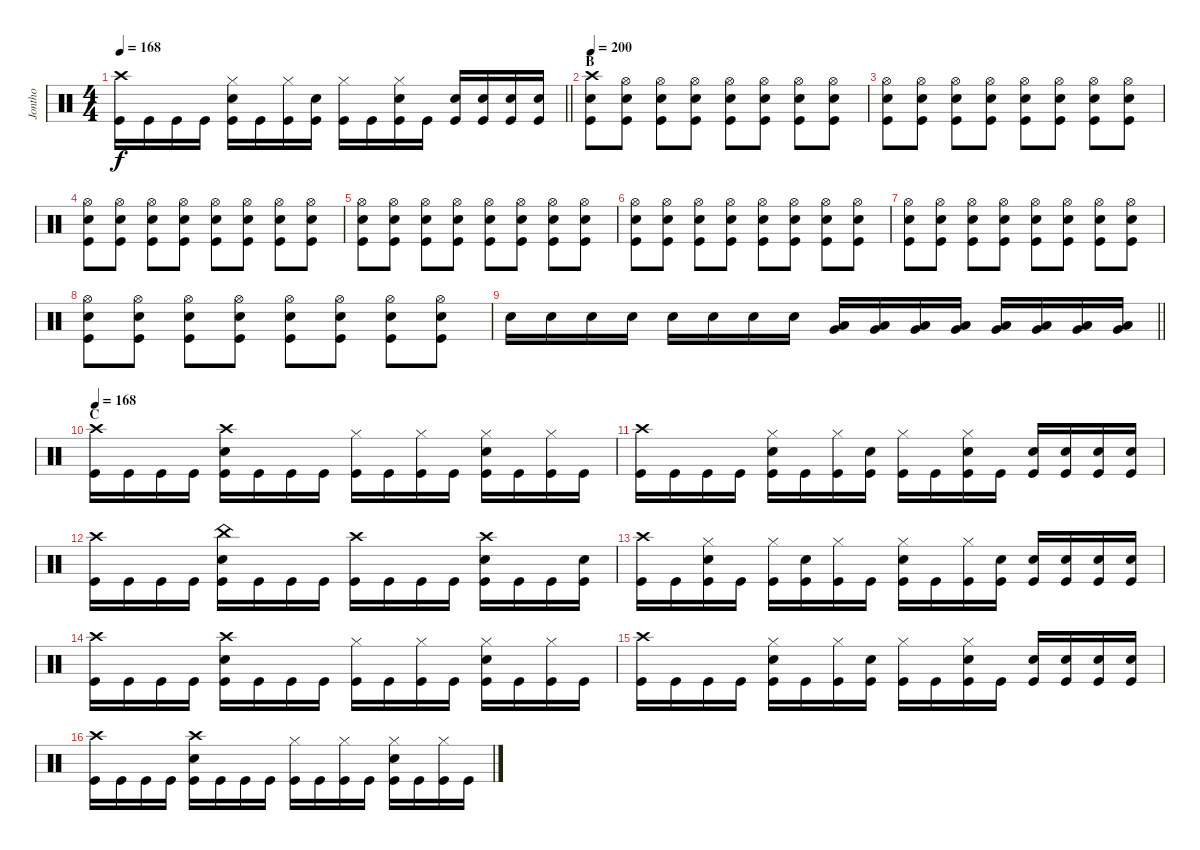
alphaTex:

\track ("Jontho" "Jontho") {instrument percussion}
\staff {score}
\articulation defaults
\ts (4 4)
\tempo 168
\clef neutral
\barLineRight lightlight
\ks c
("Crash high (hit)" "Kick (hit)").16{dy f} "Kick (hit)".16 "Kick (hit)".16 "Kick (hit)".16 ("Hi-Hat (closed)" "Snare (hit) 2" "Kick (hit)").16 "Kick (hit)".16 ("Hi-Hat (closed)" "Kick (hit)").16 ("Snare (hit) 2" "Kick (hit)").16 ("Hi-Hat (closed)" "Kick (hit)").16 "Kick (hit)".16 ("Hi-Hat (closed)" "Snare (hit) 2" "Kick (hit)").16 "Kick (hit)".16 ("Snare (hit) 2" "Kick (hit)").16 ("Snare (hit) 2" "Kick (hit)").16 ("Snare (hit) 2" "Kick (hit)").16 ("Snare (hit) 2" "Kick (hit)").16 |
\section ("" "B")
\tempo 200
("Crash high (hit)" "Snare (hit) 2" "Kick (hit)").8 ("Hi-Hat (open)" "Snare (hit) 2" "Kick (hit)").8 ("Hi-Hat (open)" "Snare (hit) 2" "Kick (hit)").8 ("Hi-Hat (open)" "Snare (hit) 2" "Kick (hit)").8 ("Hi-Hat (open)" "Snare (hit) 2" "Kick (hit)").8 ("Hi-Hat (open)" "Snare (hit) 2" "Kick (hit)").8 ("Hi-Hat (open)" "Snare (hit) 2" "Kick (hit)").8 ("Hi-Hat (open)" "Snare (hit) 2" "Kick (hit)").8 |
("Hi-Hat (open)" "Snare (hit) 2" "Kick (hit)").8 ("Hi-Hat (open)" "Snare (hit) 2" "Kick (hit)").8 ("Hi-Hat (open)" "Snare (hit) 2" "Kick (hit)").8 ("Hi-Hat (open)" "Snare (hit) 2" "Kick (hit)").8 ("Hi-Hat (open)" "Snare (hit) 2" "Kick (hit)").8 ("Hi-Hat (open)" "Snare (hit) 2" "Kick (hit)").8 ("Hi-Hat (open)" "Snare (hit) 2" "Kick (hit)").8 ("Hi-Hat (open)" "Snare (hit) 2" "Kick (hit)").8 |
("Hi-Hat (open)" "Snare (hit) 2" "Kick (hit)").8 ("Hi-Hat (open)" "Snare (hit) 2" "Kick (hit)").8 ("Hi-Hat (open)" "Snare (hit) 2" "Kick (hit)").8 ("Hi-Hat (open)" "Snare (hit) 2" "Kick (hit)").8 ("Hi-Hat (open)" "Snare (hit) 2" "Kick (hit)").8 ("Hi-Hat (open)" "Snare (hit) 2" "Kick (hit)").8 ("Hi-Hat (open)" "Snare (hit) 2" "Kick (hit)").8 ("Hi-Hat (open)" "Snare (hit) 2" "Kick (hit)").8 |
("Hi-Hat (open)" "Snare (hit) 2" "Kick (hit)").8 ("Hi-Hat (open)" "Snare (hit) 2" "Kick (hit)").8 ("Hi-Hat (open)" "Snare (hit) 2" "Kick (hit)").8 ("Hi-Hat (open)" "Snare (hit) 2" "Kick (hit)").8 ("Hi-Hat (open)" "Snare (hit) 2" "Kick (hit)").8 ("Hi-Hat (open)" "Snare (hit) 2" "Kick (hit)").8 ("Hi-Hat (open)" "Snare (hit) 2" "Kick (hit)").8 ("Hi-Hat (open)" "Snare (hit) 2" "Kick (hit)").8 |
("Hi-Hat (open)" "Snare (hit) 2" "Kick (hit)").8 ("Hi-Hat (open)" "Snare (hit) 2" "Kick (hit)").8 ("Hi-Hat (open)" "Snare (hit) 2" "Kick (hit)").8 ("Hi-Hat (open)" "Snare (hit) 2" "Kick (hit)").8 ("Hi-Hat (open)" "Snare (hit) 2" "Kick (hit)").8 ("Hi-Hat (open)" "Snare (hit) 2" "Kick (hit)").8 ("Hi-Hat (open)" "Snare (hit) 2" "Kick (hit)").8 ("Hi-Hat (open)" "Snare (hit) 2" "Kick (hit)").8 |
("Hi-Hat (open)" "Snare (hit) 2" "Kick (hit)").8 ("Hi-Hat (open)" "Snare (hit) 2" "Kick (hit)").8 ("Hi-Hat (open)" "Snare (hit) 2" "Kick (hit)").8 ("Hi-Hat (open)" "Snare (hit) 2" "Kick (hit)").8 ("Hi-Hat (open)" "Snare (hit) 2" "Kick (hit)").8 ("Hi-Hat (open)" "Snare (hit) 2" "Kick (hit)").8 ("Hi-Hat (open)" "Snare (hit) 2" "Kick (hit)").8 ("Hi-Hat (open)" "Snare (hit) 2" "Kick (hit)").8 |
("Hi-Hat (open)" "Snare (hit) 2" "Kick (hit)").8 ("Hi-Hat (open)" "Snare (hit) 2" "Kick (hit)").8 ("Hi-Hat (open)" "Snare (hit) 2" "Kick (hit)").8 ("Hi-Hat (open)" "Snare (hit) 2" "Kick (hit)").8 ("Hi-Hat (open)" "Snare (hit) 2" "Kick (hit)").8 ("Hi-Hat (open)" "Snare (hit) 2" "Kick (hit)").8 ("Hi-Hat (open)" "Snare (hit) 2" "Kick (hit)").8 ("Hi-Hat (open)" "Snare (hit) 2" "Kick (hit)").8 |
\barLineRight lightlight "Snare (hit) 2".16 "Snare (hit) 2".16 "Snare (hit) 2".16 "Snare (hit) 2".16 "Snare (hit) 2".16 "Snare (hit) 2".16 "Snare (hit) 2".16 "Snare (hit) 2".16
("Low Tom (hit)" "Very Low Tom (hit)").16 ("Low Tom (hit)" "Very Low Tom (hit)").16 ("Low Tom (hit)" "Very Low Tom (hit)").16 ("Low Tom (hit)" "Very Low Tom (hit)").16 ("Very Low Tom (hit)" "Low Floor Tom (hit)").16 ("Very Low Tom (hit)" "Low Floor Tom (hit)").16 ("Very Low Tom (hit)" "Low Floor Tom (hit)").16 ("Very Low Tom (hit)" "Low Floor Tom (hit)").16 |
\section ("" "C")
\tempo 168
("Crash high (hit)" "Kick (hit)").16 "Kick (hit)".16 "Kick (hit)".16 "Kick (hit)".16 ("Crash high (hit)" "Snare (hit) 2" "Kick (hit)").16 "Kick (hit)".16 "Kick (hit)".16 "Kick (hit)".16 ("Hi-Hat (closed)" "Kick (hit)").16 "Kick (hit)".16 ("Hi-Hat (closed)" "Kick (hit)").16 "Kick (hit)".16 ("Hi-Hat (closed)" "Snare (hit) 2" "Kick (hit)").16 "Kick (hit)".16 ("Hi-Hat (closed)" "Kick (hit)").16 "Kick (hit)".16 |
("Crash high (hit)" "Kick (hit)").16 "Kick (hit)".16 "Kick (hit)".16 "Kick (hit)".16 ("Hi-Hat (closed)" "Snare (hit) 2" "Kick (hit)").16 "Kick (hit)".16 ("Hi-Hat (closed)" "Kick (hit)").16 ("Snare (hit) 2" "Kick (hit)").16 ("Hi-Hat (closed)" "Kick (hit)").16 "Kick (hit)".16 ("Hi-Hat (closed)" "Snare (hit) 2" "Kick (hit)").16 "Kick (hit)".16 ("Snare (hit) 2" "Kick (hit)").16 ("Snare (hit) 2" "Kick (hit)").16 ("Snare (hit) 2" "Kick (hit)").16 ("Snare (hit) 2" "Kick (hit)").16 |
("Crash high (hit)" "Kick (hit)").16 "Kick (hit)".16 "Kick (hit)".16 "Kick (hit)".16 ("China (hit)" "Snare (hit) 2" "Kick (hit)").16 "Kick (hit)".16 "Kick (hit)".16 "Kick (hit)".16 ("Crash high (hit)" "Kick (hit)").16 "Kick (hit)".16 "Kick (hit)".16 "Kick (hit)".16 ("Crash high (hit)" "Snare (hit) 2" "Kick (hit)").16 "Kick (hit)".16 "Kick (hit)".16 ("Snare (hit) 2" "Kick (hit)").16 |
("Crash high (hit)" "Kick (hit)").16 "Kick (hit)".16 ("Hi-Hat (closed)" "Snare (hit) 2" "Kick (hit)").16 "Kick (hit)".16 ("Hi-Hat (closed)" "Kick (hit)").16 ("Snare (hit) 2" "Kick (hit)").16 ("Hi-Hat (closed)" "Kick (hit)").16 "Kick (hit)".16 ("Hi-Hat (closed)" "Snare (hit) 2" "Kick (hit)").16 "Kick (hit)".16 ("Hi-Hat (closed)" "Kick (hit)").16 ("Snare (hit) 2" "Kick (hit)").16 ("Snare (hit) 2" "Kick (hit)").16 ("Snare (hit) 2" "Kick (hit)").16 ("Snare (hit) 2" "Kick (hit)").16 ("Snare (hit) 2" "Kick (hit)").16 |
("Crash high (hit)" "Kick (hit)").16 "Kick (hit)".16 "Kick (hit)".16 "Kick (hit)".16 ("Crash high (hit)" "Snare (hit) 2" "Kick (hit)").16 "Kick (hit)".16 "Kick (hit)".16 "Kick (hit)".16 ("Hi-Hat (closed)" "Kick (hit)").16 "Kick (hit)".16 ("Hi-Hat (closed)" "Kick (hit)").16 "Kick (hit)".16 ("Hi-Hat (closed)" "Snare (hit) 2" "Kick (hit)").16 "Kick (hit)".16 ("Hi-Hat (closed)" "Kick (hit)").16 "Kick (hit)".16 |
("Crash high (hit)" "Kick (hit)").16 "Kick (hit)".16 "Kick (hit)".16 "Kick (hit)".16 ("Hi-Hat (closed)" "Snare (hit) 2" "Kick (hit)").16 "Kick (hit)".16 ("Hi-Hat (closed)" "Kick (hit)").16 ("Snare (hit) 2" "Kick (hit)").16 ("Hi-Hat (closed)" "Kick (hit)").16 "Kick (hit)".16 ("Hi-Hat (closed)" "Snare (hit) 2" "Kick (hit)").16 "Kick (hit)".16 ("Snare (hit) 2" "Kick (hit)").16 ("Snare (hit) 2" "Kick (hit)").16 ("Snare (hit) 2" "Kick (hit)").16 ("Snare (hit) 2" "Kick (hit)").16 |
("Crash high (hit)" "Kick (hit)").16 "Kick (hit)".16 "Kick (hit)".16 "Kick (hit)".16 ("Crash high (hit)" "Snare (hit) 2" "Kick (hit)").16 "Kick (hit)".16 "Kick (hit)".16 "Kick (hit)".16 ("Hi-Hat (closed)" "Kick (hit)").16 "Kick (hit)".16 ("Hi-Hat (closed)" "Kick (hit)").16 "Kick (hit)".16 ("Hi-Hat (closed)" "Snare (hit) 2" "Kick (hit)").16 "Kick (hit)".16 ("Hi-Hat (closed)" "Kick (hit)").16 "Kick (hit)".16
